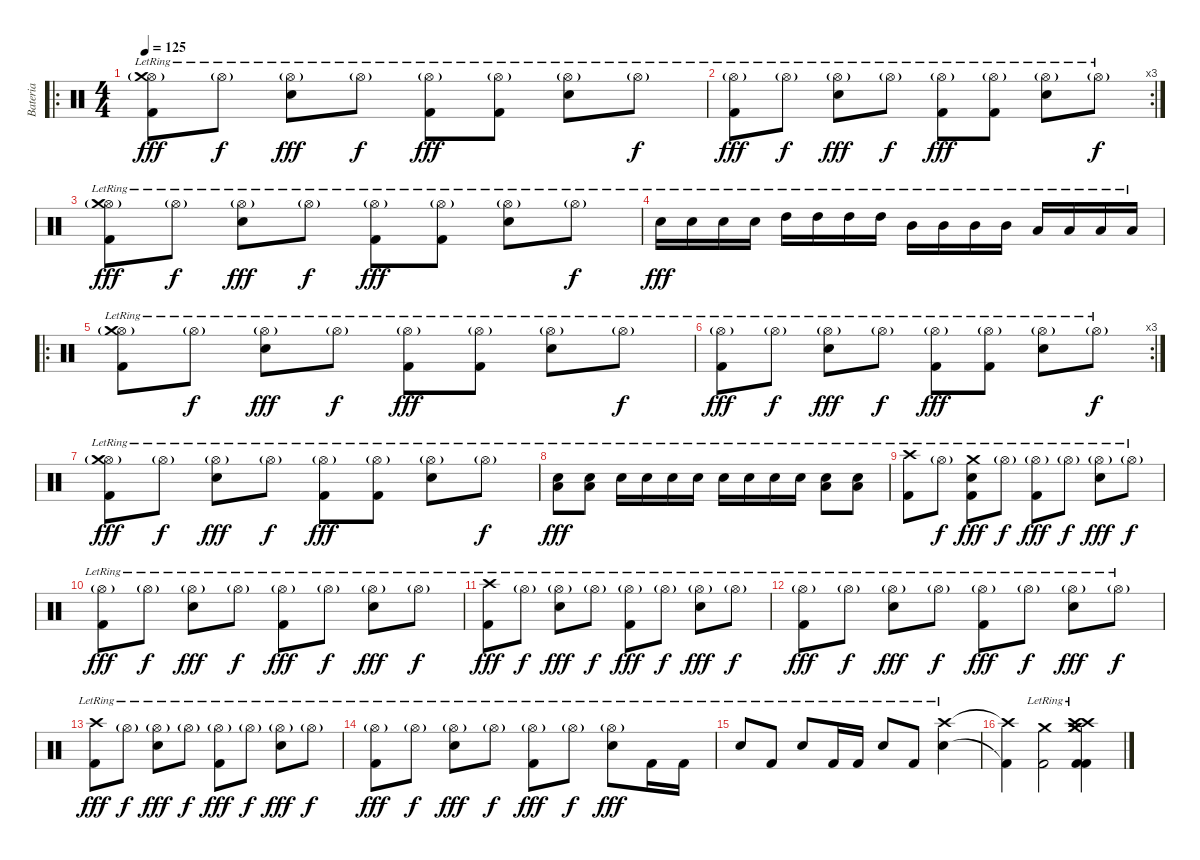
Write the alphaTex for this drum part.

\track ("Bateria" "Bateria") {instrument percussion}
\staff {score}
\articulation defaults
\ro
\ts (4 4)
\tempo 125
\clef neutral
\ks c
("Hi-Hat (open)"{g lr} "Kick (hit) 2"{lr} "Crash medium (hit)"{lr}).8{dy fff} "Hi-Hat (open)"{g lr}.8{dy f} ("Hi-Hat (open)"{g lr} "Snare (hit) 2"{lr}).8{dy fff} "Hi-Hat (open)"{g lr}.8{dy f} ("Hi-Hat (open)"{g lr} "Kick (hit) 2"{lr}).8{dy fff} ("Hi-Hat (open)"{g lr} "Kick (hit) 2"{lr}).8 ("Hi-Hat (open)"{g lr} "Snare (hit) 2"{lr}).8 "Hi-Hat (open)"{g lr}.8{dy f} |
\rc 3
("Hi-Hat (open)"{g lr} "Kick (hit) 2"{lr}).8{dy fff} "Hi-Hat (open)"{g lr}.8{dy f} ("Hi-Hat (open)"{g lr} "Snare (hit) 2"{lr}).8{dy fff} "Hi-Hat (open)"{g lr}.8{dy f} ("Hi-Hat (open)"{g lr} "Kick (hit) 2"{lr}).8{dy fff} ("Hi-Hat (open)"{g lr} "Kick (hit) 2"{lr}).8 ("Hi-Hat (open)"{g lr} "Snare (hit) 2"{lr}).8 "Hi-Hat (open)"{g lr}.8{dy f} |
("Hi-Hat (open)"{g lr} "Kick (hit) 2"{lr} "Crash medium (hit)"{lr}).8{dy fff} "Hi-Hat (open)"{g lr}.8{dy f} ("Hi-Hat (open)"{g lr} "Snare (hit) 2"{lr}).8{dy fff} "Hi-Hat (open)"{g lr}.8{dy f} ("Hi-Hat (open)"{g lr} "Kick (hit) 2"{lr}).8{dy fff} ("Hi-Hat (open)"{g lr} "Kick (hit) 2"{lr}).8 ("Hi-Hat (open)"{g lr} "Snare (hit) 2"{lr}).8 "Hi-Hat (open)"{g lr}.8{dy f} |
"Snare (hit) 2"{lr}.16{dy fff} "Snare (hit) 2"{lr}.16 "Snare (hit) 2"{lr}.16 "Snare (hit) 2"{lr}.16 "High Tom (hit)"{lr}.16 "High Tom (hit)"{lr}.16 "High Tom (hit)"{lr}.16 "High Tom (hit)"{lr}.16 "Mid Tom (hit)"{lr}.16 "Mid Tom (hit)"{lr}.16 "Mid Tom (hit)"{lr}.16 "Mid Tom (hit)"{lr}.16 "Low Tom (hit)"{lr}.16 "Low Tom (hit)"{lr}.16 "Low Tom (hit)"{lr}.16 "Low Tom (hit)"{lr}.16 |
\ro
("Hi-Hat (open)"{g lr} "Kick (hit) 2"{lr} "Crash medium (hit)"{lr}).8 "Hi-Hat (open)"{g lr}.8{dy f} ("Hi-Hat (open)"{g lr} "Snare (hit) 2"{lr}).8{dy fff} "Hi-Hat (open)"{g lr}.8{dy f} ("Hi-Hat (open)"{g lr} "Kick (hit) 2"{lr}).8{dy fff} ("Hi-Hat (open)"{g lr} "Kick (hit) 2"{lr}).8 ("Hi-Hat (open)"{g lr} "Snare (hit) 2"{lr}).8 "Hi-Hat (open)"{g lr}.8{dy f} |
\rc 3
("Hi-Hat (open)"{g lr} "Kick (hit) 2"{lr}).8{dy fff} "Hi-Hat (open)"{g lr}.8{dy f} ("Hi-Hat (open)"{g lr} "Snare (hit) 2"{lr}).8{dy fff} "Hi-Hat (open)"{g lr}.8{dy f} ("Hi-Hat (open)"{g lr} "Kick (hit) 2"{lr}).8{dy fff} ("Hi-Hat (open)"{g lr} "Kick (hit) 2"{lr}).8 ("Hi-Hat (open)"{g lr} "Snare (hit) 2"{lr}).8 "Hi-Hat (open)"{g lr}.8{dy f} |
("Hi-Hat (open)"{g lr} "Kick (hit) 2"{lr} "Crash medium (hit)"{lr}).8{dy fff} "Hi-Hat (open)"{g lr}.8{dy f} ("Hi-Hat (open)"{g lr} "Snare (hit) 2"{lr}).8{dy fff} "Hi-Hat (open)"{g lr}.8{dy f} ("Hi-Hat (open)"{g lr} "Kick (hit) 2"{lr}).8{dy fff} ("Hi-Hat (open)"{g lr} "Kick (hit) 2"{lr}).8 ("Hi-Hat (open)"{g lr} "Snare (hit) 2"{lr}).8 "Hi-Hat (open)"{g lr}.8{dy f} |
("Snare (hit) 2"{lr} "Low Tom (hit)"{lr}).8{dy fff} ("Snare (hit) 2"{lr} "Low Tom (hit)"{lr}).8 "Snare (hit) 2"{lr}.16 "Snare (hit) 2"{lr}.16 "Snare (hit) 2"{lr}.16 "Snare (hit) 2"{lr}.16 "Snare (hit) 2"{lr}.16 "Snare (hit) 2"{lr}.16 "Snare (hit) 2"{lr}.16 "Snare (hit) 2"{lr}.16 ("Snare (hit) 2"{lr} "Low Tom (hit)"{lr}).8 ("Snare (hit) 2"{lr} "Low Tom (hit)"{lr}).8 |
("Crash high (hit)"{lr} "Kick (hit) 2"{lr}).8 "Hi-Hat (open)"{g lr}.8{dy f} ("Crash medium (hit)"{lr} "Kick (hit) 2"{lr} "Snare (hit) 2"{lr}).8{dy fff} "Hi-Hat (open)"{g lr}.8{dy f} ("Hi-Hat (open)"{g lr} "Kick (hit) 2"{lr}).8{dy fff} "Hi-Hat (open)"{g lr}.8{dy f} ("Hi-Hat (open)"{g lr} "Snare (hit) 2"{lr}).8{dy fff} "Hi-Hat (open)"{g lr}.8{dy f} |
("Hi-Hat (open)"{g lr} "Kick (hit) 2"{lr}).8{dy fff} "Hi-Hat (open)"{g lr}.8{dy f} ("Hi-Hat (open)"{g lr} "Snare (hit) 2"{lr}).8{dy fff} "Hi-Hat (open)"{g lr}.8{dy f} ("Hi-Hat (open)"{g lr} "Kick (hit) 2"{lr}).8{dy fff} "Hi-Hat (open)"{g lr}.8{dy f} ("Hi-Hat (open)"{g lr} "Snare (hit) 2"{lr}).8{dy fff} "Hi-Hat (open)"{g lr}.8{dy f} |
("Crash high (hit)"{lr} "Kick (hit) 2"{lr}).8{dy fff} "Hi-Hat (open)"{g lr}.8{dy f} ("Hi-Hat (open)"{g lr} "Snare (hit) 2"{lr}).8{dy fff} "Hi-Hat (open)"{g lr}.8{dy f} ("Hi-Hat (open)"{g lr} "Kick (hit) 2"{lr}).8{dy fff} "Hi-Hat (open)"{g lr}.8{dy f} ("Hi-Hat (open)"{g lr} "Snare (hit) 2"{lr}).8{dy fff} "Hi-Hat (open)"{g lr}.8{dy f} |
("Hi-Hat (open)"{g lr} "Kick (hit) 2"{lr}).8{dy fff} "Hi-Hat (open)"{g lr}.8{dy f} ("Hi-Hat (open)"{g lr} "Snare (hit) 2"{lr}).8{dy fff} "Hi-Hat (open)"{g lr}.8{dy f} ("Hi-Hat (open)"{g lr} "Kick (hit) 2"{lr}).8{dy fff} "Hi-Hat (open)"{g lr}.8{dy f} ("Hi-Hat (open)"{g lr} "Snare (hit) 2"{lr}).8{dy fff} "Hi-Hat (open)"{g lr}.8{dy f} |
("Crash high (hit)"{lr} "Kick (hit) 2"{lr}).8{dy fff} "Hi-Hat (open)"{g lr}.8{dy f} ("Hi-Hat (open)"{g lr} "Snare (hit) 2"{lr}).8{dy fff} "Hi-Hat (open)"{g lr}.8{dy f} ("Hi-Hat (open)"{g lr} "Kick (hit) 2"{lr}).8{dy fff} "Hi-Hat (open)"{g lr}.8{dy f} ("Hi-Hat (open)"{g lr} "Snare (hit) 2"{lr}).8{dy fff} "Hi-Hat (open)"{g lr}.8{dy f} |
("Hi-Hat (open)"{g lr} "Kick (hit) 2"{lr}).8{dy fff} "Hi-Hat (open)"{g lr}.8{dy f} ("Hi-Hat (open)"{g lr} "Snare (hit) 2"{lr}).8{dy fff} "Hi-Hat (open)"{g lr}.8{dy f} ("Hi-Hat (open)"{g lr} "Kick (hit) 2"{lr}).8{dy fff} "Hi-Hat (open)"{g lr}.8{dy f} ("Hi-Hat (open)"{g lr} "Snare (hit) 2"{lr}).8{dy fff} "Kick (hit) 2"{lr}.16 "Kick (hit) 2"{lr}.16 |
"Snare (hit) 2"{lr}.8 "Kick (hit) 2"{lr}.8 "Snare (hit) 2"{lr}.8 "Kick (hit) 2"{lr}.16 "Kick (hit) 2"{lr}.16 "Snare (hit) 2"{lr}.8 "Kick (hit) 2"{lr}.8 ("Snare (hit) 2"{lr} "Crash high (hit)"{lr}).4 |
("Kick (hit) 2"{t} "Crash high (hit)"{t}).4 ("Kick (hit) 2"{lr} "Crash medium (hit)"{lr}).2 ("Kick (hit) 2"{lr} "Crash high (hit)"{lr} "Crash medium (hit)"{lr} "Kick (hit) 2"{lr} "Crash medium (hit)"{lr} "Crash high (hit)"{lr}).4
